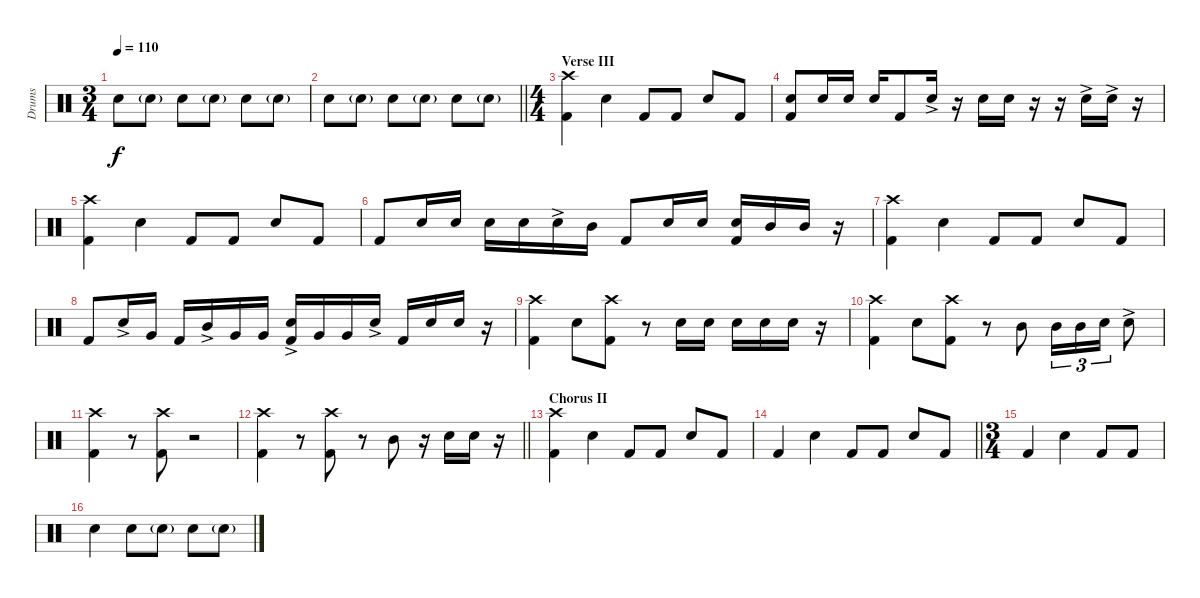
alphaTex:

\track ("Drums" "Drums") {instrument percussion}
\staff {score}
\articulation defaults
\ts (3 4)
\tempo 110
\clef neutral
\ks c "Snare (hit) 2".8{dy f} "Snare (hit) 2"{g}.8 "Snare (hit) 2".8 "Snare (hit) 2"{g}.8 "Snare (hit) 2".8 "Snare (hit) 2"{g}.8
|
\barLineRight lightlight "Snare (hit) 2".8 "Snare (hit) 2"{g}.8 "Snare (hit) 2".8 "Snare (hit) 2"{g}.8 "Snare (hit) 2".8 "Snare (hit) 2"{g}.8
|
\ts (4 4)
\section ("" "Verse III")
("Crash high (hit)" "Kick (hit) 2").4 "Snare (hit) 2".4 "Kick (hit) 2".8 "Kick (hit) 2".8 "Snare (hit) 2".8 "Kick (hit) 2".8 |
("Snare (hit) 2" "Kick (hit) 2").8 "Snare (hit) 2".16 "Snare (hit) 2".16 "Snare (hit) 2".16 "Kick (hit) 2".8 "Snare (hit) 2"{ac}.16 r.16 "Snare (hit) 2".16 "Snare (hit) 2".16 r.16 r.16 "Snare (hit) 2"{ac}.16 "Snare (hit) 2"{ac}.16 r.16 |
("Crash high (hit)" "Kick (hit) 2").4 "Snare (hit) 2".4 "Kick (hit) 2".8 "Kick (hit) 2".8 "Snare (hit) 2".8 "Kick (hit) 2".8 |
"Kick (hit) 2".8 "Snare (hit) 2".16 "Snare (hit) 2".16 "Snare (hit) 2".16 "Snare (hit) 2".16 "Snare (hit) 2"{ac}.16 "Mid Tom (hit)".16 "Kick (hit) 2".8 "Snare (hit) 2".16 "Snare (hit) 2".16 ("Snare (hit) 2" "Kick (hit) 2").16 "Mid Tom (hit)".16 "Mid Tom (hit)".16 r.16 |
("Crash high (hit)" "Kick (hit) 2").4 "Snare (hit) 2".4 "Kick (hit) 2".8 "Kick (hit) 2".8 "Snare (hit) 2".8 "Kick (hit) 2".8 |
"Kick (hit) 2".8 "Snare (hit) 2"{ac}.16 "Very Low Tom (hit)".16 "Kick (hit) 2".16 "Mid Tom (hit)"{ac}.16 "Very Low Tom (hit)".16 "Very Low Tom (hit)".16 ("Snare (hit) 2"{ac} "Kick (hit) 2").16 "Very Low Tom (hit)".16 "Very Low Tom (hit)".16 "Snare (hit) 2"{ac}.16 "Kick (hit) 2".16 "Snare (hit) 2".16 "Snare (hit) 2".16 r.16 |
("Crash high (hit)" "Kick (hit) 2").4 "Snare (hit) 2".8 ("Crash high (hit)" "Kick (hit) 2").8 r.8 "Snare (hit) 2".16 "Snare (hit) 2".16 "Snare (hit) 2".16 "Snare (hit) 2".16 "Snare (hit) 2".16 r.16 |
("Crash high (hit)" "Kick (hit) 2").4 "Snare (hit) 2".8 ("Crash high (hit)" "Kick (hit) 2").8 r.8 "Mid Tom (hit)".8 "Mid Tom (hit)".16{tu (3 2)} "Mid Tom (hit)".16{tu (3 2)} "Snare (hit) 2".16{tu (3 2)} "Snare (hit) 2"{ac}.8 |
("Crash high (hit)" "Kick (hit) 2").4 r.8 ("Crash high (hit)" "Kick (hit) 2").8 r.2 |
\barLineRight lightlight
("Crash high (hit)" "Kick (hit) 2").4 r.8 ("Crash high (hit)" "Kick (hit) 2").8 r.8 "Mid Tom (hit)".8 r.16 "Snare (hit) 2".16 "Snare (hit) 2".16 r.16 |
\section ("" "Chorus II")
("Crash high (hit)" "Kick (hit) 2").4 "Snare (hit) 2".4 "Kick (hit) 2".8 "Kick (hit) 2".8 "Snare (hit) 2".8 "Kick (hit) 2".8 |
\barLineRight lightlight "Kick (hit) 2".4 "Snare (hit) 2".4 "Kick (hit) 2".8 "Kick (hit) 2".8 "Snare (hit) 2".8 "Kick (hit) 2".8
|
\ts (3 4)
"Kick (hit) 2".4 "Snare (hit) 2".4 "Kick (hit) 2".8 "Kick (hit) 2".8 |
"Snare (hit) 2".4 "Snare (hit) 2".8 "Snare (hit) 2"{g}.8 "Snare (hit) 2".8 "Snare (hit) 2"{g}.8
